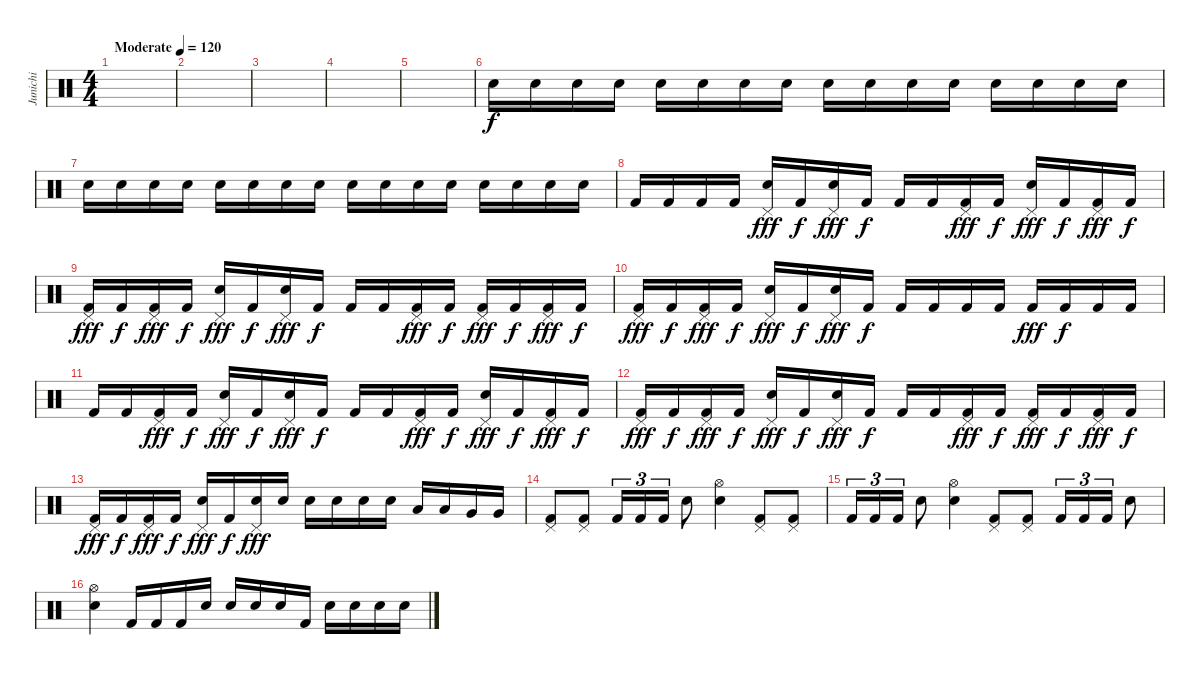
\track ("Junichi" "Junichi") {instrument percussion}
\staff {score}
\articulation defaults
\ts (4 4)
\tempo (120 "Moderate")
\clef neutral
\ks c
|
|
|
|
|
"Snare (hit) 2".16{volume 0} "Snare (hit) 2".16{volume 16} "Snare (hit) 2".16 "Snare (hit) 2".16 "Snare (hit) 2".16 "Snare (hit) 2".16 "Snare (hit) 2".16 "Snare (hit) 2".16 "Snare (hit) 2".16 "Snare (hit) 2".16 "Snare (hit) 2".16 "Snare (hit) 2".16 "Snare (hit) 2".16 "Snare (hit) 2".16 "Snare (hit) 2".16 "Snare (hit) 2".16 |
"Snare (hit) 2".16 "Snare (hit) 2".16 "Snare (hit) 2".16 "Snare (hit) 2".16 "Snare (hit) 2".16 "Snare (hit) 2".16 "Snare (hit) 2".16 "Snare (hit) 2".16 "Snare (hit) 2".16 "Snare (hit) 2".16 "Snare (hit) 2".16 "Snare (hit) 2".16 "Snare (hit) 2".16 "Snare (hit) 2".16 "Snare (hit) 2".16 "Snare (hit) 2".16 |
"Kick (hit) 2".16 "Kick (hit) 2".16 "Kick (hit) 2".16 "Kick (hit) 2".16 ("Pedal Hi-Hat (hit)" "Snare (hit) 2").16{dy fff} "Kick (hit) 2".16{dy f} ("Pedal Hi-Hat (hit)" "Snare (hit) 2").16{dy fff} "Kick (hit) 2".16{dy f} "Kick (hit) 2".16 "Kick (hit) 2".16 ("Pedal Hi-Hat (hit)" "Kick (hit) 2").16{dy fff} "Kick (hit) 2".16{dy f} ("Pedal Hi-Hat (hit)" "Snare (hit) 2").16{dy fff} "Kick (hit) 2".16{dy f} ("Pedal Hi-Hat (hit)" "Kick (hit) 2").16{dy fff} "Kick (hit) 2".16{dy f} |
("Pedal Hi-Hat (hit)" "Kick (hit) 2").16{dy fff} "Kick (hit) 2".16{dy f} ("Pedal Hi-Hat (hit)" "Kick (hit) 2").16{dy fff} "Kick (hit) 2".16{dy f} ("Pedal Hi-Hat (hit)" "Snare (hit) 2").16{dy fff} "Kick (hit) 2".16{dy f} ("Pedal Hi-Hat (hit)" "Snare (hit) 2").16{dy fff} "Kick (hit) 2".16{dy f} "Kick (hit) 2".16 "Kick (hit) 2".16 ("Pedal Hi-Hat (hit)" "Kick (hit) 2").16{dy fff} "Kick (hit) 2".16{dy f} ("Pedal Hi-Hat (hit)" "Kick (hit) 2").16{dy fff} "Kick (hit) 2".16{dy f} ("Pedal Hi-Hat (hit)" "Kick (hit) 2").16{dy fff} "Kick (hit) 2".16{dy f} |
("Pedal Hi-Hat (hit)" "Kick (hit) 2").16{dy fff} "Kick (hit) 2".16{dy f} ("Pedal Hi-Hat (hit)" "Kick (hit) 2").16{dy fff} "Kick (hit) 2".16{dy f} ("Pedal Hi-Hat (hit)" "Snare (hit) 2").16{dy fff} "Kick (hit) 2".16{dy f} ("Pedal Hi-Hat (hit)" "Snare (hit) 2").16{dy fff} "Kick (hit) 2".16{dy f} "Kick (hit) 2".16 "Kick (hit) 2".16 "Kick (hit) 2".16 "Kick (hit) 2".16 "Kick (hit) 2".16{dy fff} "Kick (hit) 2".16{dy f} "Kick (hit) 2".16 "Kick (hit) 2".16 |
"Kick (hit) 2".16 "Kick (hit) 2".16 ("Pedal Hi-Hat (hit)" "Kick (hit) 2").16{dy fff} "Kick (hit) 2".16{dy f} ("Pedal Hi-Hat (hit)" "Snare (hit) 2").16{dy fff} "Kick (hit) 2".16{dy f} ("Pedal Hi-Hat (hit)" "Snare (hit) 2").16{dy fff} "Kick (hit) 2".16{dy f} "Kick (hit) 2".16 "Kick (hit) 2".16 ("Pedal Hi-Hat (hit)" "Kick (hit) 2").16{dy fff} "Kick (hit) 2".16{dy f} ("Pedal Hi-Hat (hit)" "Snare (hit) 2").16{dy fff} "Kick (hit) 2".16{dy f} ("Pedal Hi-Hat (hit)" "Kick (hit) 2").16{dy fff} "Kick (hit) 2".16{dy f} |
("Pedal Hi-Hat (hit)" "Kick (hit) 2").16{dy fff} "Kick (hit) 2".16{dy f} ("Pedal Hi-Hat (hit)" "Kick (hit) 2").16{dy fff} "Kick (hit) 2".16{dy f} ("Pedal Hi-Hat (hit)" "Snare (hit) 2").16{dy fff} "Kick (hit) 2".16{dy f} ("Pedal Hi-Hat (hit)" "Snare (hit) 2").16{dy fff} "Kick (hit) 2".16{dy f} "Kick (hit) 2".16 "Kick (hit) 2".16 ("Pedal Hi-Hat (hit)" "Kick (hit) 2").16{dy fff} "Kick (hit) 2".16{dy f} ("Pedal Hi-Hat (hit)" "Kick (hit) 2").16{dy fff} "Kick (hit) 2".16{dy f} ("Pedal Hi-Hat (hit)" "Kick (hit) 2").16{dy fff} "Kick (hit) 2".16{dy f} |
("Pedal Hi-Hat (hit)" "Kick (hit) 2").16{dy fff} "Kick (hit) 2".16{dy f} ("Pedal Hi-Hat (hit)" "Kick (hit) 2").16{dy fff} "Kick (hit) 2".16{dy f} ("Pedal Hi-Hat (hit)" "Snare (hit) 2").16{dy fff} "Kick (hit) 2".16{dy f} ("Pedal Hi-Hat (hit)" "Snare (hit) 2").16{dy fff} "Snare (hit) 2".16 "Snare (hit) 2".16 "Snare (hit) 2".16 "Snare (hit) 2".16 "Snare (hit) 2".16 "Low Tom (hit)".16 "Low Tom (hit)".16 "Very Low Tom (hit)".16 "Very Low Tom (hit)".16 |
("Pedal Hi-Hat (hit)" "Kick (hit) 2").8 ("Pedal Hi-Hat (hit)" "Kick (hit) 2").8 "Kick (hit) 2".16{tu (3 2)} "Kick (hit) 2".16{tu (3 2)} "Kick (hit) 2".16{tu (3 2)} "Snare (hit) 2".8 ("Hi-Hat (open)" "Snare (hit) 2").4 ("Pedal Hi-Hat (hit)" "Kick (hit) 2").8 ("Pedal Hi-Hat (hit)" "Kick (hit) 2").8 |
"Kick (hit) 2".16{tu (3 2)} "Kick (hit) 2".16{tu (3 2)} "Kick (hit) 2".16{tu (3 2)} "Snare (hit) 2".8 ("Hi-Hat (open)" "Snare (hit) 2").4 ("Pedal Hi-Hat (hit)" "Kick (hit) 2").8 ("Pedal Hi-Hat (hit)" "Kick (hit) 2").8 "Kick (hit) 2".16{tu (3 2)} "Kick (hit) 2".16{tu (3 2)} "Kick (hit) 2".16{tu (3 2)} "Snare (hit) 2".8 |
("Hi-Hat (open)" "Snare (hit) 2").4 "Kick (hit) 2".16 "Kick (hit) 2".16 "Kick (hit) 2".16 "Snare (hit) 2".16 "Snare (hit) 2".16 "Snare (hit) 2".16 "Snare (hit) 2".16 "Kick (hit) 2".16 "Snare (hit) 2".16 "Snare (hit) 2".16 "Snare (hit) 2".16 "Snare (hit) 2".16
